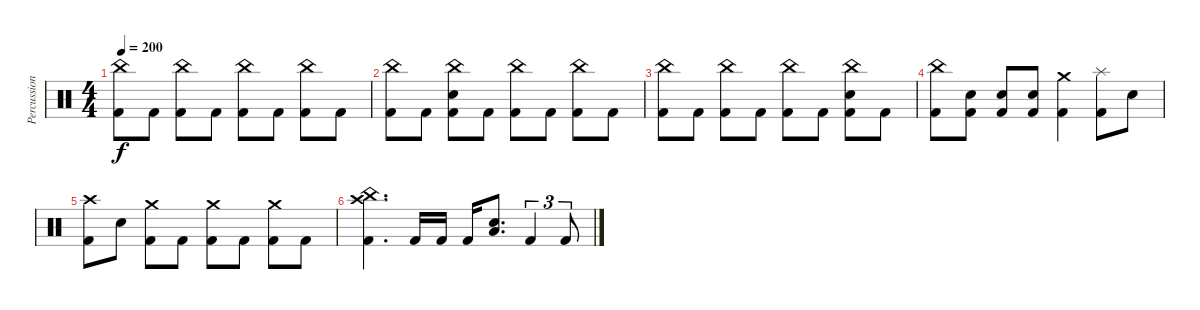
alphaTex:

\track ("Percussion" "Percussion") {instrument percussion}
\staff {score}
\articulation defaults
\ts (4 4)
\tempo 200
\clef neutral
\ks c
("China (hit)" "Kick (hit) 2").8{dy f} "Kick (hit) 2".8 ("China (hit)" "Kick (hit) 2").8 "Kick (hit) 2".8 ("China (hit)" "Kick (hit) 2").8 "Kick (hit) 2".8 ("China (hit)" "Kick (hit) 2").8 "Kick (hit) 2".8 |
("China (hit)" "Kick (hit) 2").8 "Kick (hit) 2".8 ("China (hit)" "Electric Snare (hit)" "Kick (hit) 2").8 "Kick (hit) 2".8 ("China (hit)" "Kick (hit) 2").8 "Kick (hit) 2".8 ("China (hit)" "Kick (hit) 2").8 "Kick (hit) 2".8 |
("China (hit)" "Kick (hit) 2").8 "Kick (hit) 2".8 ("China (hit)" "Kick (hit) 2").8 "Kick (hit) 2".8 ("China (hit)" "Kick (hit) 2").8 "Kick (hit) 2".8 ("China (hit)" "Electric Snare (hit)" "Kick (hit) 2").8 "Kick (hit) 2".8 |
("China (hit)" "Kick (hit) 2").8 ("Electric Snare (hit)" "Kick (hit) 2").8 ("Electric Snare (hit)" "Kick (hit) 2").8 ("Electric Snare (hit)" "Kick (hit) 2").8 ("Crash medium (hit)" "Kick (hit) 2").4 ("Splash (hit)" "Kick (hit) 2").8 "Electric Snare (hit)".8 |
("Crash high (hit)" "Kick (hit) 2").8 "Electric Snare (hit)".8 ("Crash medium (hit)" "Kick (hit) 2").8 "Kick (hit) 2".8 ("Crash medium (hit)" "Kick (hit) 2").8 "Kick (hit) 2".8 ("Crash medium (hit)" "Kick (hit) 2").8 "Kick (hit) 2".8 |
("Crash high (hit)" "China (hit)" "Kick (hit) 2").4{d} "Kick (hit) 2".16 "Kick (hit) 2".16 "Kick (hit) 2".16 ("Electric Snare (hit)" "Low Floor Tom (hit)").8{d} "Kick (hit) 2".4{tu (3 2)} "Kick (hit) 2".8{tu (3 2)}
